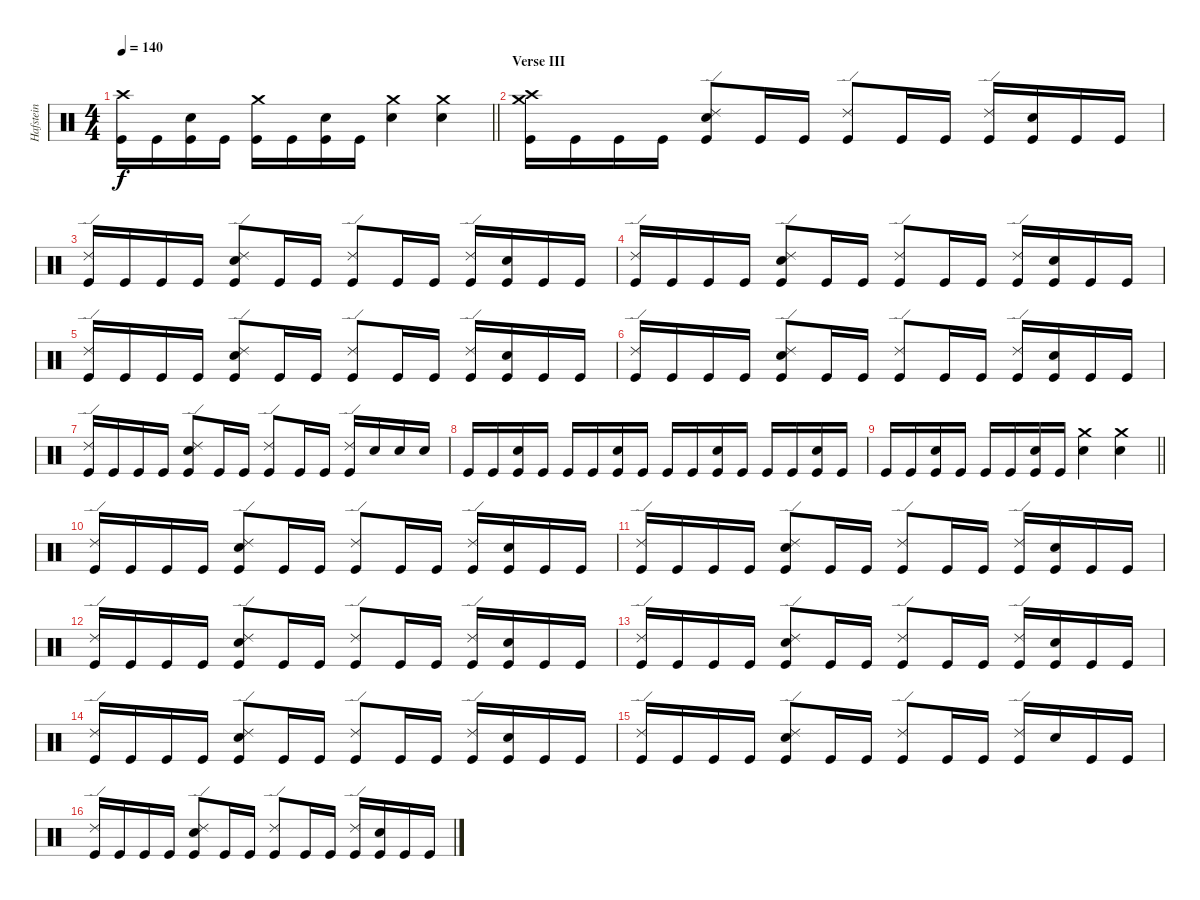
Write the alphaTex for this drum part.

\track ("Hafstein" "Hafstein") {instrument percussion}
\staff {score}
\articulation defaults
\ts (4 4)
\tempo 140
\clef neutral
\barLineRight lightlight
\ks c
("Crash high (hit)" "Kick (hit)").16{dy f} "Kick (hit)".16 ("Electric Snare (hit)" "Kick (hit)").16 "Kick (hit)".16 ("Crash medium (hit)" "Kick (hit)").16 "Kick (hit)".16 ("Electric Snare (hit)" "Kick (hit)").16 "Kick (hit)".16 ("Crash medium (hit)" "Electric Snare (hit)").4 ("Crash medium (hit)" "Electric Snare (hit)").4 |
\section ("" "Verse III")
("Crash medium (hit)" "Crash high (hit)" "Kick (hit)").16 "Kick (hit)".16 "Kick (hit)".16 "Kick (hit)".16 ("Ride (edge) 2" "Electric Snare (hit)" "Kick (hit)").8 "Kick (hit)".16 "Kick (hit)".16 ("Ride (edge) 2" "Kick (hit)").8 "Kick (hit)".16 "Kick (hit)".16 ("Ride (edge) 2" "Kick (hit)").16 ("Electric Snare (hit)" "Kick (hit)").16 "Kick (hit)".16 "Kick (hit)".16 |
("Ride (edge) 2" "Kick (hit)").16 "Kick (hit)".16 "Kick (hit)".16 "Kick (hit)".16 ("Ride (edge) 2" "Electric Snare (hit)" "Kick (hit)").8 "Kick (hit)".16 "Kick (hit)".16 ("Ride (edge) 2" "Kick (hit)").8 "Kick (hit)".16 "Kick (hit)".16 ("Ride (edge) 2" "Kick (hit)").16 ("Electric Snare (hit)" "Kick (hit)").16 "Kick (hit)".16 "Kick (hit)".16 |
("Ride (edge) 2" "Kick (hit)").16 "Kick (hit)".16 "Kick (hit)".16 "Kick (hit)".16 ("Ride (edge) 2" "Electric Snare (hit)" "Kick (hit)").8 "Kick (hit)".16 "Kick (hit)".16 ("Ride (edge) 2" "Kick (hit)").8 "Kick (hit)".16 "Kick (hit)".16 ("Ride (edge) 2" "Kick (hit)").16 ("Electric Snare (hit)" "Kick (hit)").16 "Kick (hit)".16 "Kick (hit)".16 |
("Ride (edge) 2" "Kick (hit)").16 "Kick (hit)".16 "Kick (hit)".16 "Kick (hit)".16 ("Ride (edge) 2" "Electric Snare (hit)" "Kick (hit)").8 "Kick (hit)".16 "Kick (hit)".16 ("Ride (edge) 2" "Kick (hit)").8 "Kick (hit)".16 "Kick (hit)".16 ("Ride (edge) 2" "Kick (hit)").16 ("Electric Snare (hit)" "Kick (hit)").16 "Kick (hit)".16 "Kick (hit)".16 |
("Ride (edge) 2" "Kick (hit)").16 "Kick (hit)".16 "Kick (hit)".16 "Kick (hit)".16 ("Ride (edge) 2" "Electric Snare (hit)" "Kick (hit)").8 "Kick (hit)".16 "Kick (hit)".16 ("Ride (edge) 2" "Kick (hit)").8 "Kick (hit)".16 "Kick (hit)".16 ("Ride (edge) 2" "Kick (hit)").16 ("Electric Snare (hit)" "Kick (hit)").16 "Kick (hit)".16 "Kick (hit)".16 |
("Ride (edge) 2" "Kick (hit)").16 "Kick (hit)".16 "Kick (hit)".16 "Kick (hit)".16 ("Ride (edge) 2" "Electric Snare (hit)" "Kick (hit)").8 "Kick (hit)".16 "Kick (hit)".16 ("Ride (edge) 2" "Kick (hit)").8 "Kick (hit)".16 "Kick (hit)".16 ("Ride (edge) 2" "Kick (hit)").16 "Electric Snare (hit)".16 "Electric Snare (hit)".16 "Electric Snare (hit)".16 |
"Kick (hit)".16 "Kick (hit)".16 ("Electric Snare (hit)" "Kick (hit)").16 "Kick (hit)".16 "Kick (hit)".16 "Kick (hit)".16 ("Electric Snare (hit)" "Kick (hit)").16 "Kick (hit)".16 "Kick (hit)".16 "Kick (hit)".16 ("Electric Snare (hit)" "Kick (hit)").16 "Kick (hit)".16 "Kick (hit)".16 "Kick (hit)".16 ("Electric Snare (hit)" "Kick (hit)").16 "Kick (hit)".16 |
\barLineRight lightlight "Kick (hit)".16 "Kick (hit)".16
("Electric Snare (hit)" "Kick (hit)").16 "Kick (hit)".16 "Kick (hit)".16 "Kick (hit)".16 ("Electric Snare (hit)" "Kick (hit)").16 "Kick (hit)".16 ("Crash medium (hit)" "Electric Snare (hit)").4 ("Crash medium (hit)" "Electric Snare (hit)").4 |
("Ride (edge) 2" "Kick (hit)").16 "Kick (hit)".16 "Kick (hit)".16 "Kick (hit)".16 ("Ride (edge) 2" "Electric Snare (hit)" "Kick (hit)").8 "Kick (hit)".16 "Kick (hit)".16 ("Ride (edge) 2" "Kick (hit)").8 "Kick (hit)".16 "Kick (hit)".16 ("Ride (edge) 2" "Kick (hit)").16 ("Electric Snare (hit)" "Kick (hit)").16 "Kick (hit)".16 "Kick (hit)".16 |
("Ride (edge) 2" "Kick (hit)").16 "Kick (hit)".16 "Kick (hit)".16 "Kick (hit)".16 ("Ride (edge) 2" "Electric Snare (hit)" "Kick (hit)").8 "Kick (hit)".16 "Kick (hit)".16 ("Ride (edge) 2" "Kick (hit)").8 "Kick (hit)".16 "Kick (hit)".16 ("Ride (edge) 2" "Kick (hit)").16 ("Electric Snare (hit)" "Kick (hit)").16 "Kick (hit)".16 "Kick (hit)".16 |
("Ride (edge) 2" "Kick (hit)").16 "Kick (hit)".16 "Kick (hit)".16 "Kick (hit)".16 ("Ride (edge) 2" "Electric Snare (hit)" "Kick (hit)").8 "Kick (hit)".16 "Kick (hit)".16 ("Ride (edge) 2" "Kick (hit)").8 "Kick (hit)".16 "Kick (hit)".16 ("Ride (edge) 2" "Kick (hit)").16 ("Electric Snare (hit)" "Kick (hit)").16 "Kick (hit)".16 "Kick (hit)".16 |
("Ride (edge) 2" "Kick (hit)").16 "Kick (hit)".16 "Kick (hit)".16 "Kick (hit)".16 ("Ride (edge) 2" "Electric Snare (hit)" "Kick (hit)").8 "Kick (hit)".16 "Kick (hit)".16 ("Ride (edge) 2" "Kick (hit)").8 "Kick (hit)".16 "Kick (hit)".16 ("Ride (edge) 2" "Kick (hit)").16 ("Electric Snare (hit)" "Kick (hit)").16 "Kick (hit)".16 "Kick (hit)".16 |
("Ride (edge) 2" "Kick (hit)").16 "Kick (hit)".16 "Kick (hit)".16 "Kick (hit)".16 ("Ride (edge) 2" "Electric Snare (hit)" "Kick (hit)").8 "Kick (hit)".16 "Kick (hit)".16 ("Ride (edge) 2" "Kick (hit)").8 "Kick (hit)".16 "Kick (hit)".16 ("Ride (edge) 2" "Kick (hit)").16 ("Electric Snare (hit)" "Kick (hit)").16 "Kick (hit)".16 "Kick (hit)".16 |
("Ride (edge) 2" "Kick (hit)").16 "Kick (hit)".16 "Kick (hit)".16 "Kick (hit)".16 ("Ride (edge) 2" "Electric Snare (hit)" "Kick (hit)").8 "Kick (hit)".16 "Kick (hit)".16 ("Ride (edge) 2" "Kick (hit)").8 "Kick (hit)".16 "Kick (hit)".16 ("Ride (edge) 2" "Kick (hit)").16 "Electric Snare (hit)".16 "Kick (hit)".16 "Kick (hit)".16 |
("Ride (edge) 2" "Kick (hit)").16 "Kick (hit)".16 "Kick (hit)".16 "Kick (hit)".16 ("Ride (edge) 2" "Electric Snare (hit)" "Kick (hit)").8 "Kick (hit)".16 "Kick (hit)".16 ("Ride (edge) 2" "Kick (hit)").8 "Kick (hit)".16 "Kick (hit)".16 ("Ride (edge) 2" "Kick (hit)").16 ("Electric Snare (hit)" "Kick (hit)").16 "Kick (hit)".16 "Kick (hit)".16
